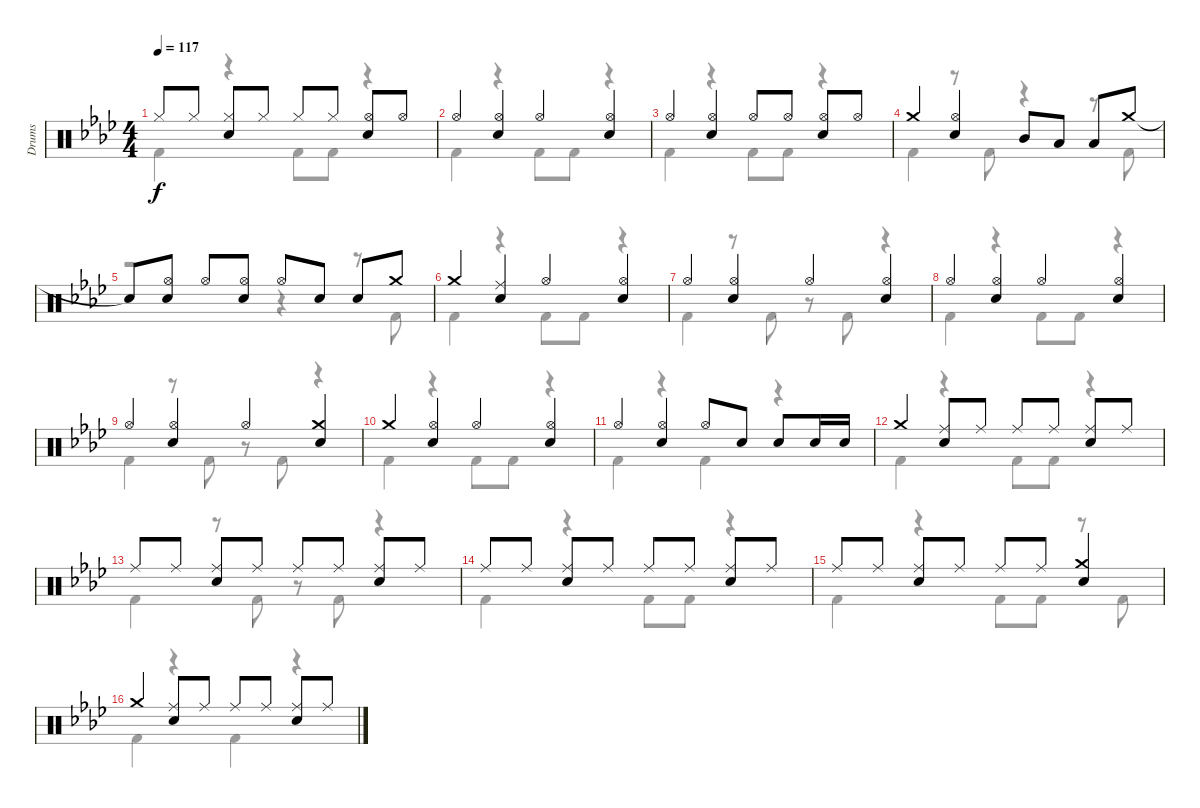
\track ("Drums" "Drums") {instrument percussion}
\staff {score}
\articulation defaults
\voice
\ts (4 4)
\tempo 117
\clef neutral
\ks ab "Hi-Hat (closed)".8{dy f} "Hi-Hat (closed)".8
("Hi-Hat (closed)" "Snare (hit) 2").8 "Hi-Hat (closed)".8 "Hi-Hat (closed)".8 "Hi-Hat (closed)".8 ("Hi-Hat (open)" "Snare (hit) 2").8 "Hi-Hat (open)".8 |
"Hi-Hat (open)".4 ("Hi-Hat (open)" "Snare (hit) 2").4 "Hi-Hat (open)".4 ("Hi-Hat (open)" "Snare (hit) 2").4 |
"Hi-Hat (open)".4 ("Hi-Hat (open)" "Snare (hit) 2").4 "Hi-Hat (open)".8 "Hi-Hat (open)".8 ("Hi-Hat (open)" "Snare (hit) 2").8 "Hi-Hat (open)".8 |
"Crash medium (hit)".4 ("Hi-Hat (open)" "Snare (hit) 2").4 "Mid Tom (hit)".8 "Low Tom (hit)".8 "Low Tom (hit)".8 "Crash medium (hit)".8 |
"Snare (hit)"{t}.8 ("Hi-Hat (open)" "Snare (hit) 2").8 "Hi-Hat (open)".8 ("Hi-Hat (open)" "Snare (hit) 2").8 "Hi-Hat (open)".8 "Snare (hit) 2".8 "Snare (hit) 2".8 "Crash medium (hit)".8 |
"Crash medium (hit)".4 ("Ride (middle)" "Snare (hit) 2").4 "Hi-Hat (open)".4 ("Hi-Hat (open)" "Snare (hit) 2").4 |
"Hi-Hat (open)".4 ("Hi-Hat (open)" "Snare (hit) 2").4 "Hi-Hat (open)".4 ("Hi-Hat (open)" "Snare (hit) 2").4 |
"Hi-Hat (open)".4 ("Hi-Hat (open)" "Snare (hit) 2").4 "Hi-Hat (open)".4 ("Hi-Hat (open)" "Snare (hit) 2").4 |
"Hi-Hat (open)".4 ("Hi-Hat (open)" "Snare (hit) 2").4 "Hi-Hat (open)".4 ("Crash medium (hit)" "Snare (hit) 2").4 |
"Crash medium (hit)".4 ("Hi-Hat (open)" "Snare (hit) 2").4 "Hi-Hat (open)".4 ("Hi-Hat (open)" "Snare (hit) 2").4 |
"Hi-Hat (open)".4 ("Hi-Hat (open)" "Snare (hit) 2").4 "Hi-Hat (open)".8 "Snare (hit) 2".8 "Snare (hit) 2".8 "Snare (hit) 2".16 "Snare (hit) 2".16 |
"Crash medium (hit)".4 ("Ride (middle)" "Snare (hit) 2").8 "Ride (middle)".8 "Ride (middle)".8 "Ride (middle)".8 ("Ride (middle)" "Snare (hit) 2").8 "Ride (middle)".8 |
"Ride (middle)".8 "Ride (middle)".8 ("Ride (middle)" "Snare (hit) 2").8 "Ride (middle)".8 "Ride (middle)".8 "Ride (middle)".8 ("Ride (middle)" "Snare (hit) 2").8 "Ride (middle)".8 |
"Ride (middle)".8 "Ride (middle)".8 ("Ride (middle)" "Snare (hit) 2").8 "Ride (middle)".8 "Ride (middle)".8 "Ride (middle)".8 ("Ride (middle)" "Snare (hit) 2").8 "Ride (middle)".8 |
"Ride (middle)".8 "Ride (middle)".8 ("Ride (middle)" "Snare (hit) 2").8 "Ride (middle)".8 "Ride (middle)".8 "Ride (middle)".8 ("Crash medium (hit)" "Snare (hit) 2").4 |
"Crash medium (hit)".4 ("Ride (middle)" "Snare (hit) 2").8 "Ride (middle)".8 "Ride (middle)".8 "Ride (middle)".8 ("Ride (middle)" "Snare (hit) 2").8 "Ride (middle)".8
\voice
\clef neutral
\ottava regular
\simile none
\ks ab "Kick (hit) 2".4{dy f}
r.4 "Kick (hit) 2".8 "Kick (hit) 2".8 r.4 |
"Kick (hit) 2".4 r.4 "Kick (hit) 2".8 "Kick (hit) 2".8 r.4 |
"Kick (hit) 2".4 r.4 "Kick (hit) 2".8 "Kick (hit) 2".8 r.4 |
"Kick (hit) 2".4 r.8 "Kick (hit) 2".8 r.4 r.8 "Kick (hit) 2".8 |
r.2 r.4 r.8 "Kick (hit) 2".8 |
"Kick (hit) 2".4 r.4 "Kick (hit) 2".8 "Kick (hit) 2".8 r.4 |
"Kick (hit) 2".4 r.8 "Kick (hit) 2".8 r.8 "Kick (hit) 2".8 r.4 |
"Kick (hit) 2".4 r.4 "Kick (hit) 2".8 "Kick (hit) 2".8 r.4 |
"Kick (hit) 2".4 r.8 "Kick (hit) 2".8 r.8 "Kick (hit) 2".8 r.4 |
"Kick (hit) 2".4 r.4 "Kick (hit) 2".8 "Kick (hit) 2".8 r.4 |
"Kick (hit) 2".4 r.4 "Kick (hit) 2".4 r.4 |
"Kick (hit) 2".4 r.4 "Kick (hit) 2".8 "Kick (hit) 2".8 r.4 |
"Kick (hit) 2".4 r.8 "Kick (hit) 2".8 r.8 "Kick (hit) 2".8 r.4 |
"Kick (hit) 2".4 r.4 "Kick (hit) 2".8 "Kick (hit) 2".8 r.4 |
"Kick (hit) 2".4 r.4 "Kick (hit) 2".8 "Kick (hit) 2".8 r.8 "Kick (hit) 2".8 |
"Kick (hit) 2".4 r.4 "Kick (hit) 2".4 r.4
